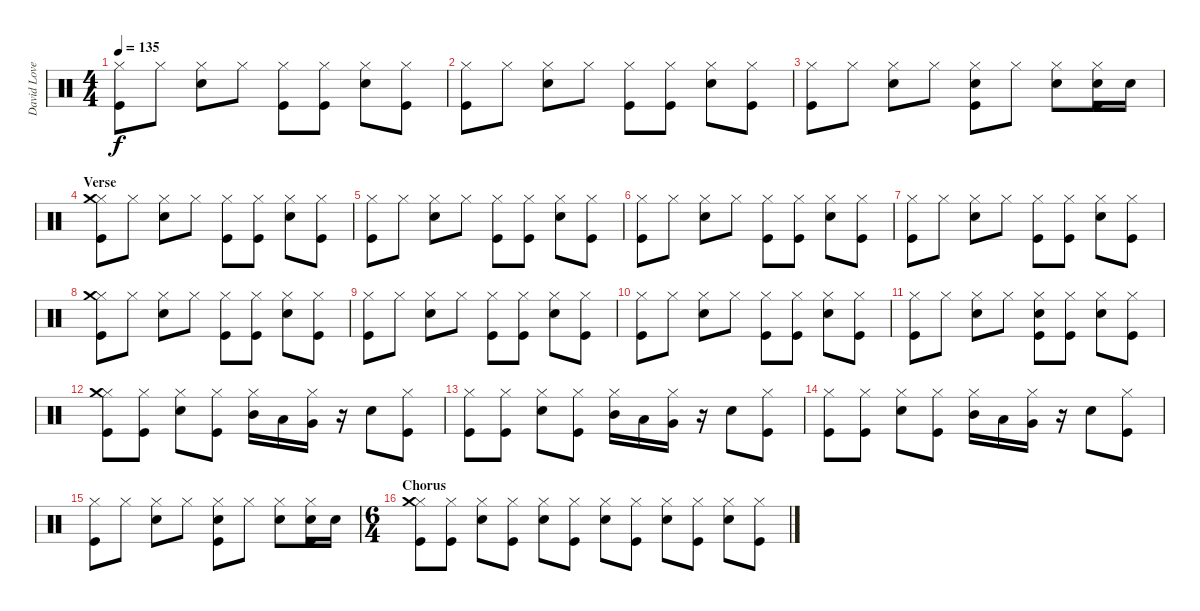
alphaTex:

\track ("David Lovering" "David Love") {instrument percussion}
\staff {score}
\articulation defaults
\ts (4 4)
\tempo 135
\clef neutral
\ks c
("Hi-Hat (closed)" "Kick (hit)").8{dy f} "Hi-Hat (closed)".8 ("Hi-Hat (closed)" "Snare (hit) 2").8 "Hi-Hat (closed)".8 ("Hi-Hat (closed)" "Kick (hit)").8 ("Hi-Hat (closed)" "Kick (hit)").8 ("Hi-Hat (closed)" "Snare (hit) 2").8 ("Hi-Hat (closed)" "Kick (hit)").8 |
("Hi-Hat (closed)" "Kick (hit)").8 "Hi-Hat (closed)".8 ("Hi-Hat (closed)" "Snare (hit) 2").8 "Hi-Hat (closed)".8 ("Hi-Hat (closed)" "Kick (hit)").8 ("Hi-Hat (closed)" "Kick (hit)").8 ("Hi-Hat (closed)" "Snare (hit) 2").8 ("Hi-Hat (closed)" "Kick (hit)").8 |
("Hi-Hat (closed)" "Kick (hit)").8 "Hi-Hat (closed)".8 ("Hi-Hat (closed)" "Snare (hit) 2").8 "Hi-Hat (closed)".8 ("Hi-Hat (closed)" "Snare (hit) 2" "Kick (hit)").8 "Hi-Hat (closed)".8 ("Hi-Hat (closed)" "Snare (hit) 2").8 ("Hi-Hat (closed)" "Snare (hit) 2" "Kick (hit)").16 "Snare (hit) 2".16 |
\section ("" "Verse")
("Hi-Hat (closed)" "Crash medium (hit)" "Kick (hit)").8 "Hi-Hat (closed)".8 ("Hi-Hat (closed)" "Snare (hit) 2").8 "Hi-Hat (closed)".8 ("Hi-Hat (closed)" "Kick (hit)").8 ("Hi-Hat (closed)" "Kick (hit)").8 ("Hi-Hat (closed)" "Snare (hit) 2").8 ("Hi-Hat (closed)" "Kick (hit)").8 |
("Hi-Hat (closed)" "Kick (hit)").8 "Hi-Hat (closed)".8 ("Hi-Hat (closed)" "Snare (hit) 2").8 "Hi-Hat (closed)".8 ("Hi-Hat (closed)" "Kick (hit)").8 ("Hi-Hat (closed)" "Kick (hit)").8 ("Hi-Hat (closed)" "Snare (hit) 2").8 ("Hi-Hat (closed)" "Kick (hit)").8 |
("Hi-Hat (closed)" "Kick (hit)").8 "Hi-Hat (closed)".8 ("Hi-Hat (closed)" "Snare (hit) 2").8 "Hi-Hat (closed)".8 ("Hi-Hat (closed)" "Kick (hit)").8 ("Hi-Hat (closed)" "Kick (hit)").8 ("Hi-Hat (closed)" "Snare (hit) 2").8 ("Hi-Hat (closed)" "Kick (hit)").8 |
("Hi-Hat (closed)" "Kick (hit)").8 "Hi-Hat (closed)".8 ("Hi-Hat (closed)" "Snare (hit) 2").8 "Hi-Hat (closed)".8 ("Hi-Hat (closed)" "Kick (hit)").8 ("Hi-Hat (closed)" "Kick (hit)").8 ("Hi-Hat (closed)" "Snare (hit) 2").8 ("Hi-Hat (closed)" "Kick (hit)").8 |
("Hi-Hat (closed)" "Crash medium (hit)" "Kick (hit)").8 "Hi-Hat (closed)".8 ("Hi-Hat (closed)" "Snare (hit) 2").8 "Hi-Hat (closed)".8 ("Hi-Hat (closed)" "Kick (hit)").8 ("Hi-Hat (closed)" "Kick (hit)").8 ("Hi-Hat (closed)" "Snare (hit) 2").8 ("Hi-Hat (closed)" "Kick (hit)").8 |
("Hi-Hat (closed)" "Kick (hit)").8 "Hi-Hat (closed)".8 ("Hi-Hat (closed)" "Snare (hit) 2").8 "Hi-Hat (closed)".8 ("Hi-Hat (closed)" "Kick (hit)").8 ("Hi-Hat (closed)" "Kick (hit)").8 ("Hi-Hat (closed)" "Snare (hit) 2").8 ("Hi-Hat (closed)" "Kick (hit)").8 |
("Hi-Hat (closed)" "Kick (hit)").8 "Hi-Hat (closed)".8 ("Hi-Hat (closed)" "Snare (hit) 2").8 "Hi-Hat (closed)".8 ("Hi-Hat (closed)" "Kick (hit)").8 ("Hi-Hat (closed)" "Kick (hit)").8 ("Hi-Hat (closed)" "Snare (hit) 2").8 ("Hi-Hat (closed)" "Kick (hit)").8 |
("Hi-Hat (closed)" "Kick (hit)").8 "Hi-Hat (closed)".8 ("Hi-Hat (closed)" "Snare (hit) 2").8 "Hi-Hat (closed)".8 ("Hi-Hat (closed)" "Snare (hit) 2" "Kick (hit)").8 ("Hi-Hat (closed)" "Kick (hit)").8 ("Hi-Hat (closed)" "Snare (hit) 2").8 ("Hi-Hat (closed)" "Kick (hit)").8 |
("Hi-Hat (closed)" "Crash medium (hit)" "Kick (hit)").8 ("Hi-Hat (closed)" "Kick (hit)").8 ("Hi-Hat (closed)" "Snare (hit) 2").8 ("Hi-Hat (closed)" "Kick (hit)").8 ("Hi-Hat (closed)" "Mid Tom (hit)").16 "Low Tom (hit)".16 ("Hi-Hat (closed)" "Very Low Tom (hit)").16 r.16 "Snare (hit) 2".8 ("Hi-Hat (closed)" "Kick (hit)").8 |
("Hi-Hat (closed)" "Kick (hit)").8 ("Hi-Hat (closed)" "Kick (hit)").8 ("Hi-Hat (closed)" "Snare (hit) 2").8 ("Hi-Hat (closed)" "Kick (hit)").8 ("Hi-Hat (closed)" "Mid Tom (hit)").16 "Low Tom (hit)".16 ("Hi-Hat (closed)" "Very Low Tom (hit)").16 r.16 "Snare (hit) 2".8 ("Hi-Hat (closed)" "Kick (hit)").8 |
("Hi-Hat (closed)" "Kick (hit)").8 ("Hi-Hat (closed)" "Kick (hit)").8 ("Hi-Hat (closed)" "Snare (hit) 2").8 ("Hi-Hat (closed)" "Kick (hit)").8 ("Hi-Hat (closed)" "Mid Tom (hit)").16 "Low Tom (hit)".16 ("Hi-Hat (closed)" "Very Low Tom (hit)").16 r.16 "Snare (hit) 2".8 ("Hi-Hat (closed)" "Kick (hit)").8 |
("Hi-Hat (closed)" "Kick (hit)").8 "Hi-Hat (closed)".8 ("Hi-Hat (closed)" "Snare (hit) 2").8 "Hi-Hat (closed)".8 ("Hi-Hat (closed)" "Snare (hit) 2" "Kick (hit)").8 "Hi-Hat (closed)".8 ("Hi-Hat (closed)" "Snare (hit) 2").8 ("Hi-Hat (closed)" "Snare (hit) 2" "Kick (hit)").16 "Snare (hit) 2".16 |
\ts (6 4)
\section ("" "Chorus")
("Hi-Hat (closed)" "Crash medium (hit)" "Kick (hit)").8 ("Hi-Hat (closed)" "Kick (hit)").8 ("Hi-Hat (closed)" "Snare (hit) 2").8 ("Hi-Hat (closed)" "Kick (hit)").8 ("Hi-Hat (closed)" "Snare (hit) 2").8 ("Hi-Hat (closed)" "Kick (hit)").8 ("Hi-Hat (closed)" "Snare (hit) 2").8 ("Hi-Hat (closed)" "Kick (hit)").8 ("Hi-Hat (closed)" "Snare (hit) 2").8 ("Hi-Hat (closed)" "Kick (hit)").8 ("Hi-Hat (closed)" "Snare (hit) 2").8 ("Hi-Hat (closed)" "Kick (hit)").8
